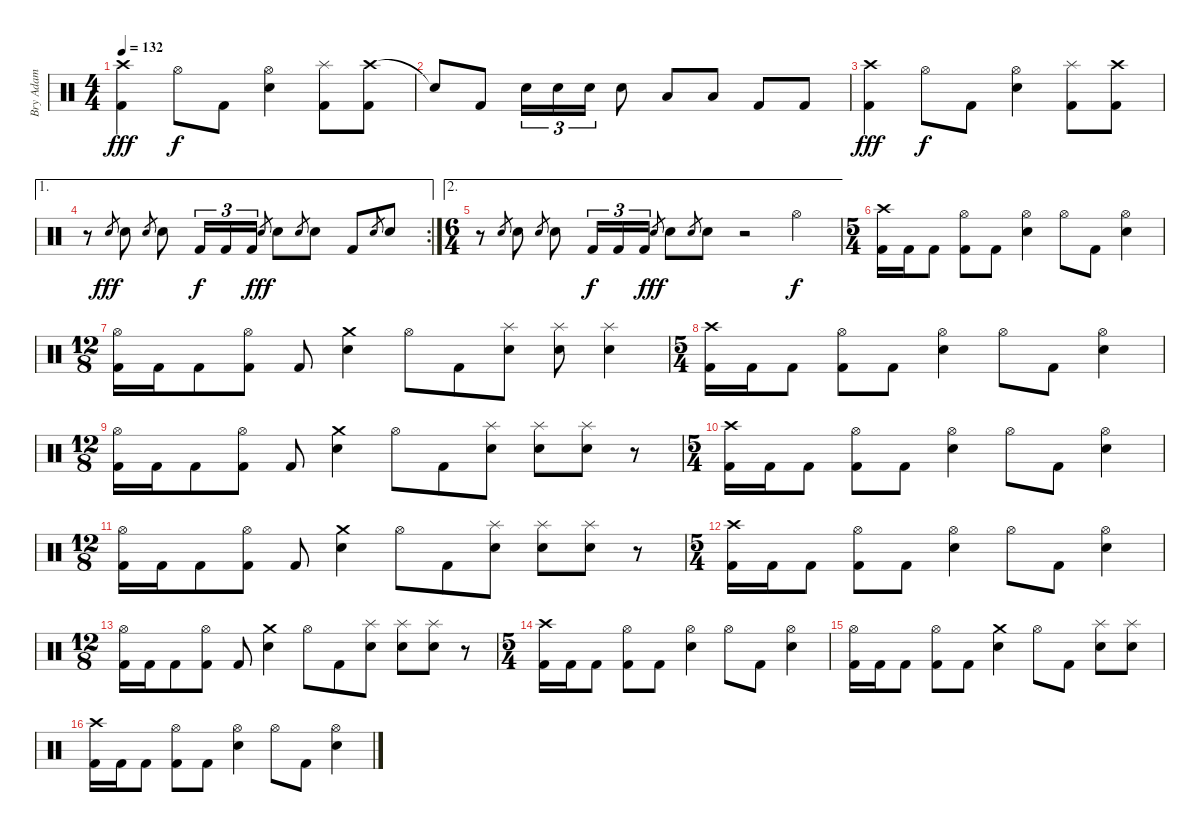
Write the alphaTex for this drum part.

\track ("Bry Adam" "Bry Adam") {instrument percussion}
\staff {score}
\articulation defaults
\ts (4 4)
\tempo 132
\clef neutral
\ks c
("Crash high (hit)" "Kick (hit) 2").4{dy fff} "Hi-Hat (open)".8{dy f} "Kick (hit) 2".8 ("Hi-Hat (open)" "Snare (hit) 2").4 ("Splash (hit)" "Kick (hit) 2").8 ("Crash high (hit)" "Kick (hit) 2").8 |
"Snare (hit)"{t}.8 "Kick (hit) 2".8 "Snare (hit) 2".16{tu (3 2)} "Snare (hit) 2".16{tu (3 2)} "Snare (hit) 2".16{tu (3 2)} "Snare (hit) 2".8 "Low Tom (hit)".8 "Low Tom (hit)".8 "Kick (hit) 2".8 "Kick (hit) 2".8 |
("Crash high (hit)" "Kick (hit) 2").4{dy fff} "Hi-Hat (open)".8{dy f} "Kick (hit) 2".8 ("Hi-Hat (open)" "Snare (hit) 2").4 ("Splash (hit)" "Kick (hit) 2").8 ("Crash high (hit)" "Kick (hit) 2").8 |
\ae 1
\rc 2
r.8 "Snare (hit) 2".8{gr dy fff} "Snare (hit) 2".8 "Snare (hit) 2".8{gr} "Snare (hit) 2".8 "Kick (hit) 2".16{tu (3 2) dy f} "Kick (hit) 2".16{tu (3 2)} "Kick (hit) 2".16{tu (3 2)} "Snare (hit) 2".8{gr dy fff} "Snare (hit) 2".8 "Snare (hit) 2".8{gr} "Snare (hit) 2".8 "Kick (hit) 2".8 "Snare (hit) 2".8{gr} "Snare (hit) 2".8 |
\ae 2
\ts (6 4)
r.8 "Snare (hit) 2".8{gr} "Snare (hit) 2".8 "Snare (hit) 2".8{gr} "Snare (hit) 2".8 "Kick (hit) 2".16{tu (3 2) dy f} "Kick (hit) 2".16{tu (3 2)} "Kick (hit) 2".16{tu (3 2)} "Snare (hit) 2".8{gr dy fff} "Snare (hit) 2".8 "Snare (hit) 2".8{gr} "Snare (hit) 2".8 r.2 "Hi-Hat (open)".4{dy f} |
\ts (5 4)
("Crash high (hit)" "Kick (hit) 2").16 "Kick (hit) 2".16 "Kick (hit) 2".8 ("Hi-Hat (open)" "Kick (hit) 2").8 "Kick (hit) 2".8 ("Hi-Hat (open)" "Snare (hit) 2").4 "Hi-Hat (open)".8 "Kick (hit) 2".8 ("Hi-Hat (open)" "Snare (hit) 2").4 |
\ts (12 8)
("Hi-Hat (open)" "Kick (hit) 2").16 "Kick (hit) 2".16 "Kick (hit) 2".8 ("Hi-Hat (open)" "Kick (hit) 2").8 "Kick (hit) 2".8 ("Crash medium (hit)" "Snare (hit) 2").4 "Hi-Hat (open)".8 "Kick (hit) 2".8 ("Splash (hit)" "Snare (hit) 2").8 ("Splash (hit)" "Snare (hit) 2").8 ("Splash (hit)" "Snare (hit) 2").4 |
\ts (5 4)
("Crash high (hit)" "Kick (hit) 2").16 "Kick (hit) 2".16 "Kick (hit) 2".8 ("Hi-Hat (open)" "Kick (hit) 2").8 "Kick (hit) 2".8 ("Hi-Hat (open)" "Snare (hit) 2").4 "Hi-Hat (open)".8 "Kick (hit) 2".8 ("Hi-Hat (open)" "Snare (hit) 2").4 |
\ts (12 8)
("Hi-Hat (open)" "Kick (hit) 2").16 "Kick (hit) 2".16 "Kick (hit) 2".8 ("Hi-Hat (open)" "Kick (hit) 2").8 "Kick (hit) 2".8 ("Crash medium (hit)" "Snare (hit) 2").4 "Hi-Hat (open)".8 "Kick (hit) 2".8 ("Splash (hit)" "Snare (hit) 2").8 ("Splash (hit)" "Snare (hit) 2").8 ("Splash (hit)" "Snare (hit) 2").8 r.8 |
\ts (5 4)
("Crash high (hit)" "Kick (hit) 2").16 "Kick (hit) 2".16 "Kick (hit) 2".8 ("Hi-Hat (open)" "Kick (hit) 2").8 "Kick (hit) 2".8 ("Hi-Hat (open)" "Snare (hit) 2").4 "Hi-Hat (open)".8 "Kick (hit) 2".8 ("Hi-Hat (open)" "Snare (hit) 2").4 |
\ts (12 8)
("Hi-Hat (open)" "Kick (hit) 2").16 "Kick (hit) 2".16 "Kick (hit) 2".8 ("Hi-Hat (open)" "Kick (hit) 2").8 "Kick (hit) 2".8 ("Crash medium (hit)" "Snare (hit) 2").4 "Hi-Hat (open)".8 "Kick (hit) 2".8 ("Splash (hit)" "Snare (hit) 2").8 ("Splash (hit)" "Snare (hit) 2").8 ("Splash (hit)" "Snare (hit) 2").8 r.8 |
\ts (5 4)
("Crash high (hit)" "Kick (hit) 2").16 "Kick (hit) 2".16 "Kick (hit) 2".8 ("Hi-Hat (open)" "Kick (hit) 2").8 "Kick (hit) 2".8 ("Hi-Hat (open)" "Snare (hit) 2").4 "Hi-Hat (open)".8 "Kick (hit) 2".8 ("Hi-Hat (open)" "Snare (hit) 2").4 |
\ts (12 8)
("Hi-Hat (open)" "Kick (hit) 2").16 "Kick (hit) 2".16 "Kick (hit) 2".8 ("Hi-Hat (open)" "Kick (hit) 2").8 "Kick (hit) 2".8 ("Crash medium (hit)" "Snare (hit) 2").4 "Hi-Hat (open)".8 "Kick (hit) 2".8 ("Splash (hit)" "Snare (hit) 2").8 ("Splash (hit)" "Snare (hit) 2").8 ("Splash (hit)" "Snare (hit) 2").8 r.8 |
\ts (5 4)
("Crash high (hit)" "Kick (hit) 2").16 "Kick (hit) 2".16 "Kick (hit) 2".8 ("Hi-Hat (open)" "Kick (hit) 2").8 "Kick (hit) 2".8 ("Hi-Hat (open)" "Snare (hit) 2").4 "Hi-Hat (open)".8 "Kick (hit) 2".8 ("Hi-Hat (open)" "Snare (hit) 2").4 |
("Hi-Hat (open)" "Kick (hit) 2").16 "Kick (hit) 2".16 "Kick (hit) 2".8 ("Hi-Hat (open)" "Kick (hit) 2").8 "Kick (hit) 2".8 ("Crash medium (hit)" "Snare (hit) 2").4 "Hi-Hat (open)".8 "Kick (hit) 2".8 ("Splash (hit)" "Snare (hit) 2").8 ("Splash (hit)" "Snare (hit) 2").8 |
("Crash high (hit)" "Kick (hit) 2").16 "Kick (hit) 2".16 "Kick (hit) 2".8 ("Hi-Hat (open)" "Kick (hit) 2").8 "Kick (hit) 2".8 ("Hi-Hat (open)" "Snare (hit) 2").4 "Hi-Hat (open)".8 "Kick (hit) 2".8 ("Hi-Hat (open)" "Snare (hit) 2").4
